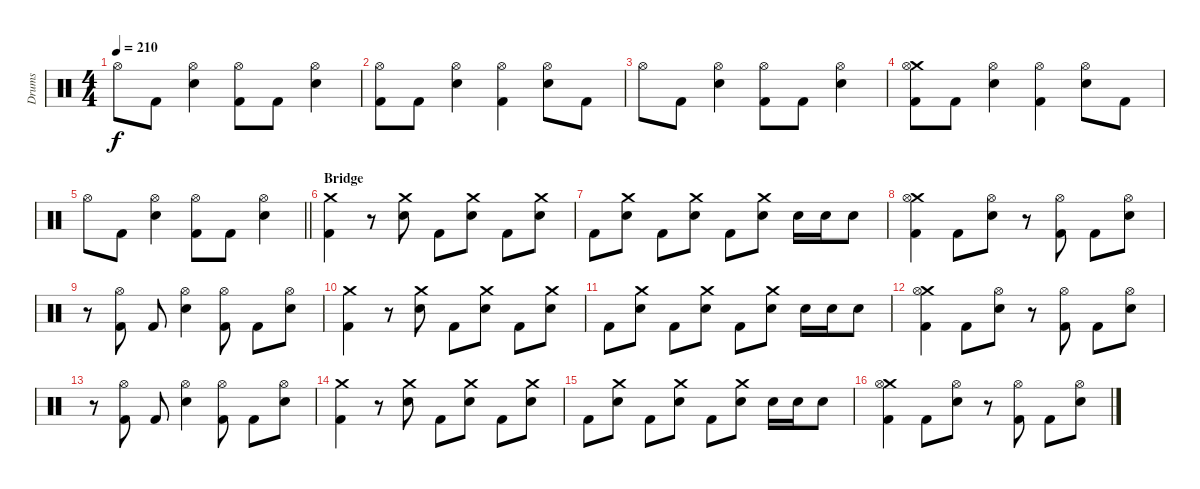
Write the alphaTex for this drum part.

\track ("Drums" "Drums") {instrument percussion}
\staff {score}
\articulation defaults
\ts (4 4)
\tempo 210
\clef neutral
\ks c "Hi-Hat (open)".8{dy f} "Kick (hit) 2".8
("Hi-Hat (open)" "Electric Snare (hit)").4 ("Hi-Hat (open)" "Kick (hit) 2").8 "Kick (hit) 2".8 ("Hi-Hat (open)" "Electric Snare (hit)").4 |
("Hi-Hat (open)" "Kick (hit) 2").8 "Kick (hit) 2".8 ("Hi-Hat (open)" "Electric Snare (hit)").4 ("Hi-Hat (open)" "Kick (hit) 2").4 ("Hi-Hat (open)" "Electric Snare (hit)").8 "Kick (hit) 2".8 |
"Hi-Hat (open)".8 "Kick (hit) 2".8 ("Hi-Hat (open)" "Electric Snare (hit)").4 ("Hi-Hat (open)" "Kick (hit) 2").8 "Kick (hit) 2".8 ("Hi-Hat (open)" "Electric Snare (hit)").4 |
("Crash medium (hit)" "Hi-Hat (open)" "Kick (hit) 2").8 "Kick (hit) 2".8 ("Hi-Hat (open)" "Electric Snare (hit)").4 ("Hi-Hat (open)" "Kick (hit) 2").4 ("Hi-Hat (open)" "Electric Snare (hit)").8 "Kick (hit) 2".8 |
\barLineRight lightlight "Hi-Hat (open)".8 "Kick (hit) 2".8
("Hi-Hat (open)" "Electric Snare (hit)").4 ("Hi-Hat (open)" "Kick (hit) 2").8 "Kick (hit) 2".8 ("Hi-Hat (open)" "Electric Snare (hit)").4 |
\section ("" "Bridge")
("Crash medium (hit)" "Kick (hit) 2").4 r.8 ("Crash medium (hit)" "Electric Snare (hit)").8 "Kick (hit) 2".8 ("Crash medium (hit)" "Electric Snare (hit)").8 "Kick (hit) 2".8 ("Crash medium (hit)" "Electric Snare (hit)").8 |
"Kick (hit) 2".8 ("Crash medium (hit)" "Electric Snare (hit)").8 "Kick (hit) 2".8 ("Crash medium (hit)" "Electric Snare (hit)").8 "Kick (hit) 2".8 ("Crash medium (hit)" "Electric Snare (hit)").8 "Electric Snare (hit)".16 "Electric Snare (hit)".16 "Electric Snare (hit)".8 |
("Crash medium (hit)" "Hi-Hat (open)" "Kick (hit) 2").4 "Kick (hit) 2".8 ("Hi-Hat (open)" "Electric Snare (hit)").8 r.8 ("Hi-Hat (open)" "Kick (hit) 2").8 "Kick (hit) 2".8 ("Hi-Hat (open)" "Electric Snare (hit)").8 |
r.8 ("Hi-Hat (open)" "Kick (hit) 2").8 "Kick (hit) 2".8 ("Hi-Hat (open)" "Electric Snare (hit)").4 ("Hi-Hat (open)" "Kick (hit) 2").8 "Kick (hit) 2".8 ("Hi-Hat (open)" "Electric Snare (hit)").8 |
("Crash medium (hit)" "Kick (hit) 2").4 r.8 ("Crash medium (hit)" "Electric Snare (hit)").8 "Kick (hit) 2".8 ("Crash medium (hit)" "Electric Snare (hit)").8 "Kick (hit) 2".8 ("Crash medium (hit)" "Electric Snare (hit)").8 |
"Kick (hit) 2".8 ("Crash medium (hit)" "Electric Snare (hit)").8 "Kick (hit) 2".8 ("Crash medium (hit)" "Electric Snare (hit)").8 "Kick (hit) 2".8 ("Crash medium (hit)" "Electric Snare (hit)").8 "Electric Snare (hit)".16 "Electric Snare (hit)".16 "Electric Snare (hit)".8 |
("Crash medium (hit)" "Hi-Hat (open)" "Kick (hit) 2").4 "Kick (hit) 2".8 ("Hi-Hat (open)" "Electric Snare (hit)").8 r.8 ("Hi-Hat (open)" "Kick (hit) 2").8 "Kick (hit) 2".8 ("Hi-Hat (open)" "Electric Snare (hit)").8 |
r.8 ("Hi-Hat (open)" "Kick (hit) 2").8 "Kick (hit) 2".8 ("Hi-Hat (open)" "Electric Snare (hit)").4 ("Hi-Hat (open)" "Kick (hit) 2").8 "Kick (hit) 2".8 ("Hi-Hat (open)" "Electric Snare (hit)").8 |
("Crash medium (hit)" "Kick (hit) 2").4 r.8 ("Crash medium (hit)" "Electric Snare (hit)").8 "Kick (hit) 2".8 ("Crash medium (hit)" "Electric Snare (hit)").8 "Kick (hit) 2".8 ("Crash medium (hit)" "Electric Snare (hit)").8 |
"Kick (hit) 2".8 ("Crash medium (hit)" "Electric Snare (hit)").8 "Kick (hit) 2".8 ("Crash medium (hit)" "Electric Snare (hit)").8 "Kick (hit) 2".8 ("Crash medium (hit)" "Electric Snare (hit)").8 "Electric Snare (hit)".16 "Electric Snare (hit)".16 "Electric Snare (hit)".8 |
("Crash medium (hit)" "Hi-Hat (open)" "Kick (hit) 2").4 "Kick (hit) 2".8 ("Hi-Hat (open)" "Electric Snare (hit)").8 r.8 ("Hi-Hat (open)" "Kick (hit) 2").8 "Kick (hit) 2".8 ("Hi-Hat (open)" "Electric Snare (hit)").8
